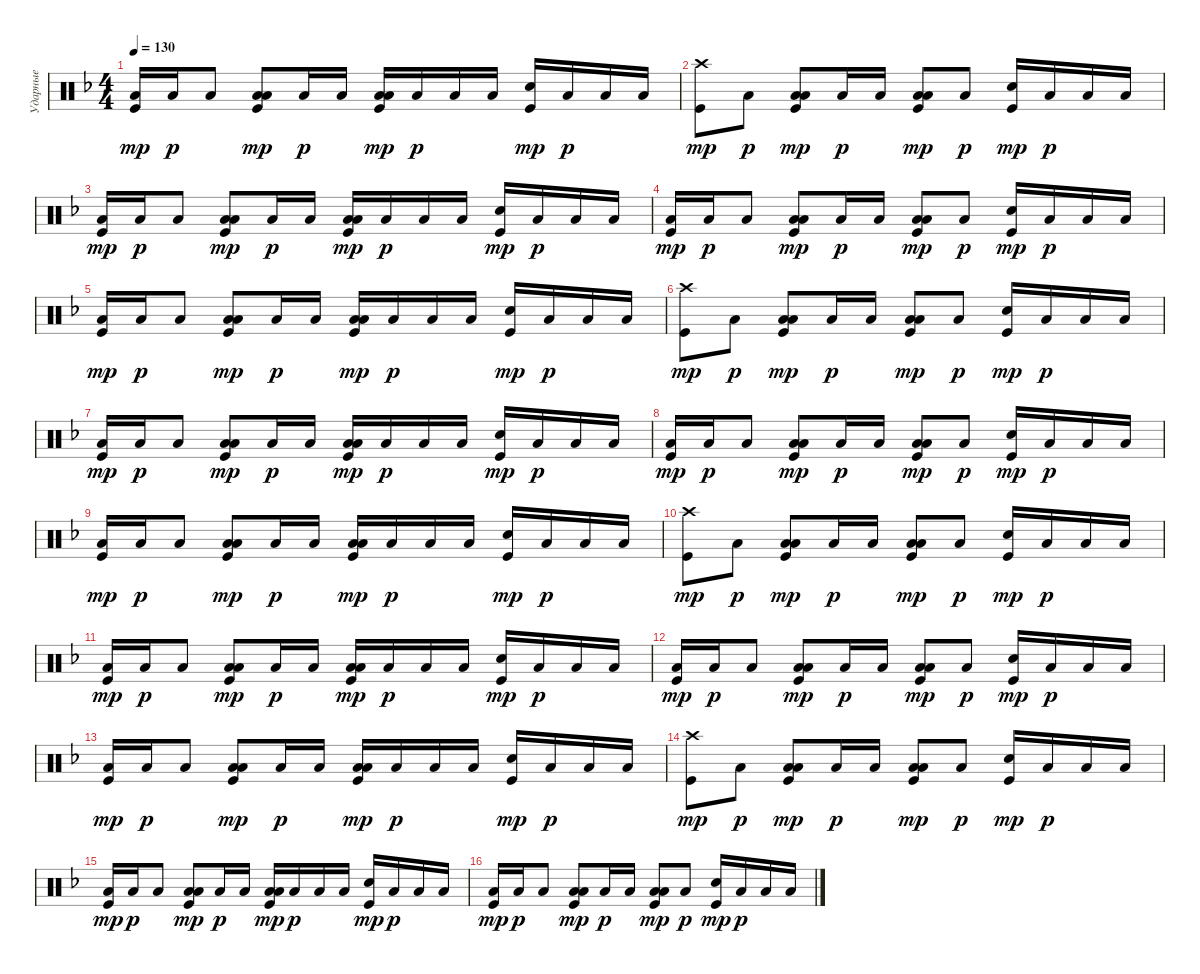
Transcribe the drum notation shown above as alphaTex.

\track ("Ударные" "Ударные") {instrument percussion}
\staff {score}
\articulation defaults
\ts (4 4)
\tempo 130
\clef neutral
\ks dminor
("Low Tom (hit)" "Kick (hit)").16{dy mp} "Low Tom (hit)".16{dy p} "Low Tom (hit)".8{bd 240} ("Low Tom (hit)" "Kick (hit)" "Low Tom (hit)").8{bd 240 dy mp} "Low Tom (hit)".16{dy p} "Low Tom (hit)".16 ("Low Tom (hit)" "Kick (hit)" "Low Tom (hit)").16{bd 240 dy mp} "Low Tom (hit)".16{dy p} "Low Tom (hit)".16 "Low Tom (hit)".16 ("Kick (hit)" "Snare (hit) 2").16{dy mp} "Low Tom (hit)".16{dy p} "Low Tom (hit)".16 "Low Tom (hit)".16 |
("Kick (hit)" "Crash high (hit)").8{dy mp} "Low Tom (hit)".8{dy p} ("Low Tom (hit)" "Kick (hit)" "Low Tom (hit)").8{bd 240 dy mp} "Low Tom (hit)".16{dy p} "Low Tom (hit)".16 ("Low Tom (hit)" "Kick (hit)" "Low Tom (hit)").8{bd 240 dy mp} "Low Tom (hit)".8{dy p} ("Kick (hit)" "Snare (hit) 2").16{dy mp} "Low Tom (hit)".16{dy p} "Low Tom (hit)".16 "Low Tom (hit)".16 |
("Low Tom (hit)" "Kick (hit)").16{dy mp} "Low Tom (hit)".16{dy p} "Low Tom (hit)".8{bd 240} ("Low Tom (hit)" "Kick (hit)" "Low Tom (hit)").8{bd 240 dy mp} "Low Tom (hit)".16{dy p} "Low Tom (hit)".16 ("Low Tom (hit)" "Kick (hit)" "Low Tom (hit)").16{bd 240 dy mp} "Low Tom (hit)".16{dy p} "Low Tom (hit)".16 "Low Tom (hit)".16 ("Kick (hit)" "Snare (hit) 2").16{dy mp} "Low Tom (hit)".16{dy p} "Low Tom (hit)".16 "Low Tom (hit)".16 |
("Low Tom (hit)" "Kick (hit)").16{dy mp} "Low Tom (hit)".16{dy p} "Low Tom (hit)".8{bd 240} ("Low Tom (hit)" "Kick (hit)" "Low Tom (hit)").8{bd 240 dy mp} "Low Tom (hit)".16{dy p} "Low Tom (hit)".16 ("Low Tom (hit)" "Kick (hit)" "Low Tom (hit)").8{bd 240 dy mp} "Low Tom (hit)".8{dy p} ("Kick (hit)" "Snare (hit) 2").16{dy mp} "Low Tom (hit)".16{dy p} "Low Tom (hit)".16 "Low Tom (hit)".16 |
("Low Tom (hit)" "Kick (hit)").16{dy mp} "Low Tom (hit)".16{dy p} "Low Tom (hit)".8{bd 240} ("Low Tom (hit)" "Kick (hit)" "Low Tom (hit)").8{bd 240 dy mp} "Low Tom (hit)".16{dy p} "Low Tom (hit)".16 ("Low Tom (hit)" "Kick (hit)" "Low Tom (hit)").16{bd 240 dy mp} "Low Tom (hit)".16{dy p} "Low Tom (hit)".16 "Low Tom (hit)".16 ("Kick (hit)" "Snare (hit) 2").16{dy mp} "Low Tom (hit)".16{dy p} "Low Tom (hit)".16 "Low Tom (hit)".16 |
("Kick (hit)" "Crash high (hit)").8{dy mp} "Low Tom (hit)".8{dy p} ("Low Tom (hit)" "Kick (hit)" "Low Tom (hit)").8{bd 240 dy mp} "Low Tom (hit)".16{dy p} "Low Tom (hit)".16 ("Low Tom (hit)" "Kick (hit)" "Low Tom (hit)").8{bd 240 dy mp} "Low Tom (hit)".8{dy p} ("Kick (hit)" "Snare (hit) 2").16{dy mp} "Low Tom (hit)".16{dy p} "Low Tom (hit)".16 "Low Tom (hit)".16 |
("Low Tom (hit)" "Kick (hit)").16{dy mp} "Low Tom (hit)".16{dy p} "Low Tom (hit)".8{bd 240} ("Low Tom (hit)" "Kick (hit)" "Low Tom (hit)").8{bd 240 dy mp} "Low Tom (hit)".16{dy p} "Low Tom (hit)".16 ("Low Tom (hit)" "Kick (hit)" "Low Tom (hit)").16{bd 240 dy mp} "Low Tom (hit)".16{dy p} "Low Tom (hit)".16 "Low Tom (hit)".16 ("Kick (hit)" "Snare (hit) 2").16{dy mp} "Low Tom (hit)".16{dy p} "Low Tom (hit)".16 "Low Tom (hit)".16 |
("Low Tom (hit)" "Kick (hit)").16{dy mp} "Low Tom (hit)".16{dy p} "Low Tom (hit)".8{bd 240} ("Low Tom (hit)" "Kick (hit)" "Low Tom (hit)").8{bd 240 dy mp} "Low Tom (hit)".16{dy p} "Low Tom (hit)".16 ("Low Tom (hit)" "Kick (hit)" "Low Tom (hit)").8{bd 240 dy mp} "Low Tom (hit)".8{dy p} ("Kick (hit)" "Snare (hit) 2").16{dy mp} "Low Tom (hit)".16{dy p} "Low Tom (hit)".16 "Low Tom (hit)".16 |
("Low Tom (hit)" "Kick (hit)").16{dy mp} "Low Tom (hit)".16{dy p} "Low Tom (hit)".8{bd 240} ("Low Tom (hit)" "Kick (hit)" "Low Tom (hit)").8{bd 240 dy mp} "Low Tom (hit)".16{dy p} "Low Tom (hit)".16 ("Low Tom (hit)" "Kick (hit)" "Low Tom (hit)").16{bd 240 dy mp} "Low Tom (hit)".16{dy p} "Low Tom (hit)".16 "Low Tom (hit)".16 ("Kick (hit)" "Snare (hit) 2").16{dy mp} "Low Tom (hit)".16{dy p} "Low Tom (hit)".16 "Low Tom (hit)".16 |
("Kick (hit)" "Crash high (hit)").8{dy mp} "Low Tom (hit)".8{dy p} ("Low Tom (hit)" "Kick (hit)" "Low Tom (hit)").8{bd 240 dy mp} "Low Tom (hit)".16{dy p} "Low Tom (hit)".16 ("Low Tom (hit)" "Kick (hit)" "Low Tom (hit)").8{bd 240 dy mp} "Low Tom (hit)".8{dy p} ("Kick (hit)" "Snare (hit) 2").16{dy mp} "Low Tom (hit)".16{dy p} "Low Tom (hit)".16 "Low Tom (hit)".16 |
("Low Tom (hit)" "Kick (hit)").16{dy mp} "Low Tom (hit)".16{dy p} "Low Tom (hit)".8{bd 240} ("Low Tom (hit)" "Kick (hit)" "Low Tom (hit)").8{bd 240 dy mp} "Low Tom (hit)".16{dy p} "Low Tom (hit)".16 ("Low Tom (hit)" "Kick (hit)" "Low Tom (hit)").16{bd 240 dy mp} "Low Tom (hit)".16{dy p} "Low Tom (hit)".16 "Low Tom (hit)".16 ("Kick (hit)" "Snare (hit) 2").16{dy mp} "Low Tom (hit)".16{dy p} "Low Tom (hit)".16 "Low Tom (hit)".16 |
("Low Tom (hit)" "Kick (hit)").16{dy mp} "Low Tom (hit)".16{dy p} "Low Tom (hit)".8{bd 240} ("Low Tom (hit)" "Kick (hit)" "Low Tom (hit)").8{bd 240 dy mp} "Low Tom (hit)".16{dy p} "Low Tom (hit)".16 ("Low Tom (hit)" "Kick (hit)" "Low Tom (hit)").8{bd 240 dy mp} "Low Tom (hit)".8{dy p} ("Kick (hit)" "Snare (hit) 2").16{dy mp} "Low Tom (hit)".16{dy p} "Low Tom (hit)".16 "Low Tom (hit)".16 |
("Low Tom (hit)" "Kick (hit)").16{dy mp} "Low Tom (hit)".16{dy p} "Low Tom (hit)".8{bd 240} ("Low Tom (hit)" "Kick (hit)" "Low Tom (hit)").8{bd 240 dy mp} "Low Tom (hit)".16{dy p} "Low Tom (hit)".16 ("Low Tom (hit)" "Kick (hit)" "Low Tom (hit)").16{bd 240 dy mp} "Low Tom (hit)".16{dy p} "Low Tom (hit)".16 "Low Tom (hit)".16 ("Kick (hit)" "Snare (hit) 2").16{dy mp} "Low Tom (hit)".16{dy p} "Low Tom (hit)".16 "Low Tom (hit)".16 |
("Kick (hit)" "Crash high (hit)").8{dy mp} "Low Tom (hit)".8{dy p} ("Low Tom (hit)" "Kick (hit)" "Low Tom (hit)").8{bd 240 dy mp} "Low Tom (hit)".16{dy p} "Low Tom (hit)".16 ("Low Tom (hit)" "Kick (hit)" "Low Tom (hit)").8{bd 240 dy mp} "Low Tom (hit)".8{dy p} ("Kick (hit)" "Snare (hit) 2").16{dy mp} "Low Tom (hit)".16{dy p} "Low Tom (hit)".16 "Low Tom (hit)".16 |
("Low Tom (hit)" "Kick (hit)").16{dy mp} "Low Tom (hit)".16{dy p} "Low Tom (hit)".8{bd 240} ("Low Tom (hit)" "Kick (hit)" "Low Tom (hit)").8{bd 240 dy mp} "Low Tom (hit)".16{dy p} "Low Tom (hit)".16 ("Low Tom (hit)" "Kick (hit)" "Low Tom (hit)").16{bd 240 dy mp} "Low Tom (hit)".16{dy p} "Low Tom (hit)".16 "Low Tom (hit)".16 ("Kick (hit)" "Snare (hit) 2").16{dy mp} "Low Tom (hit)".16{dy p} "Low Tom (hit)".16 "Low Tom (hit)".16 |
("Low Tom (hit)" "Kick (hit)").16{dy mp} "Low Tom (hit)".16{dy p} "Low Tom (hit)".8{bd 240} ("Low Tom (hit)" "Kick (hit)" "Low Tom (hit)").8{bd 240 dy mp} "Low Tom (hit)".16{dy p} "Low Tom (hit)".16 ("Low Tom (hit)" "Kick (hit)" "Low Tom (hit)").8{bd 240 dy mp} "Low Tom (hit)".8{dy p} ("Kick (hit)" "Snare (hit) 2").16{dy mp} "Low Tom (hit)".16{dy p} "Low Tom (hit)".16 "Low Tom (hit)".16
